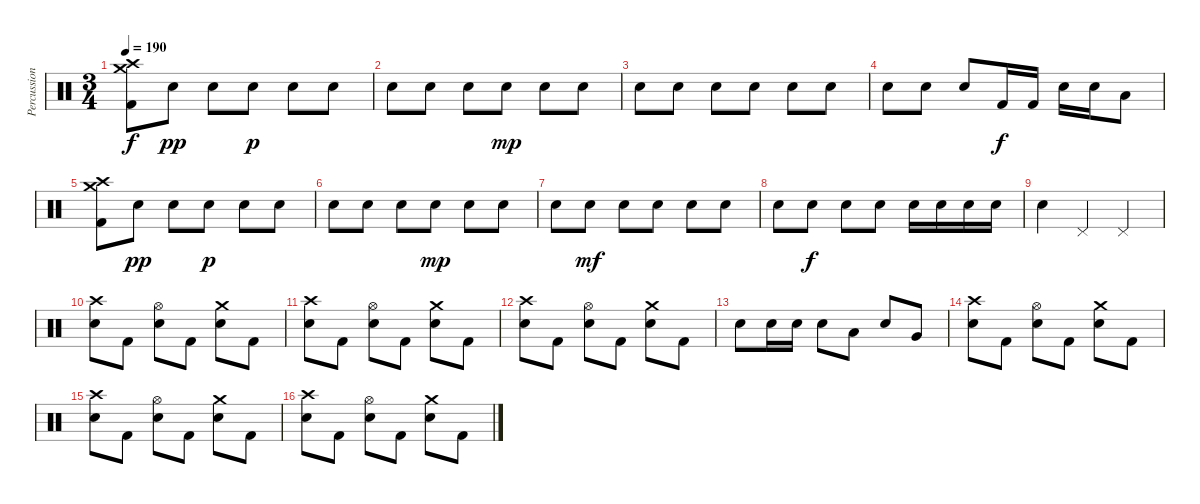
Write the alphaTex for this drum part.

\track ("Percussion" "Percussion") {instrument percussion}
\staff {score}
\articulation defaults
\ts (3 4)
\tempo 190
\clef neutral
\ks c
("Crash medium (hit)" "Crash high (hit)" "Kick (hit) 2").8{dy f} "Electric Snare (hit)".8{dy pp} "Electric Snare (hit)".8 "Electric Snare (hit)".8{dy p} "Electric Snare (hit)".8 "Electric Snare (hit)".8 |
"Electric Snare (hit)".8 "Electric Snare (hit)".8 "Electric Snare (hit)".8 "Electric Snare (hit)".8{dy mp} "Electric Snare (hit)".8 "Electric Snare (hit)".8 |
"Electric Snare (hit)".8 "Electric Snare (hit)".8 "Electric Snare (hit)".8 "Electric Snare (hit)".8 "Electric Snare (hit)".8 "Electric Snare (hit)".8 |
"Electric Snare (hit)".8 "Electric Snare (hit)".8 "Electric Snare (hit)".8 "Kick (hit) 2".16{dy f} "Kick (hit) 2".16 "Electric Snare (hit)".16 "Electric Snare (hit)".16 "Low Floor Tom (hit)".8 |
("Crash medium (hit)" "Crash high (hit)" "Kick (hit) 2").8 "Electric Snare (hit)".8{dy pp} "Electric Snare (hit)".8 "Electric Snare (hit)".8{dy p} "Electric Snare (hit)".8 "Electric Snare (hit)".8 |
"Electric Snare (hit)".8 "Electric Snare (hit)".8 "Electric Snare (hit)".8 "Electric Snare (hit)".8{dy mp} "Electric Snare (hit)".8 "Electric Snare (hit)".8 |
"Electric Snare (hit)".8 "Electric Snare (hit)".8{dy mf} "Electric Snare (hit)".8 "Electric Snare (hit)".8 "Electric Snare (hit)".8 "Electric Snare (hit)".8 |
"Electric Snare (hit)".8 "Electric Snare (hit)".8{dy f} "Electric Snare (hit)".8 "Electric Snare (hit)".8 "Electric Snare (hit)".16 "Electric Snare (hit)".16 "Electric Snare (hit)".16 "Electric Snare (hit)".16 |
"Electric Snare (hit)".4 "Pedal Hi-Hat (hit)".4 "Pedal Hi-Hat (hit)".4 |
("Crash high (hit)" "Electric Snare (hit)").8 "Kick (hit) 2".8 ("Hi-Hat (open)" "Electric Snare (hit)").8 "Kick (hit) 2".8 ("Crash medium (hit)" "Electric Snare (hit)").8 "Kick (hit) 2".8 |
("Crash high (hit)" "Electric Snare (hit)").8 "Kick (hit) 2".8 ("Hi-Hat (open)" "Electric Snare (hit)").8 "Kick (hit) 2".8 ("Crash medium (hit)" "Electric Snare (hit)").8 "Kick (hit) 2".8 |
("Crash high (hit)" "Electric Snare (hit)").8 "Kick (hit) 2".8 ("Hi-Hat (open)" "Electric Snare (hit)").8 "Kick (hit) 2".8 ("Crash medium (hit)" "Electric Snare (hit)").8 "Kick (hit) 2".8 |
"Electric Snare (hit)".8 "Electric Snare (hit)".16 "Electric Snare (hit)".16 "Electric Snare (hit)".8 "Low Tom (hit)".8 "Electric Snare (hit)".8 "Very Low Tom (hit)".8 |
("Crash high (hit)" "Electric Snare (hit)").8 "Kick (hit) 2".8 ("Hi-Hat (open)" "Electric Snare (hit)").8 "Kick (hit) 2".8 ("Crash medium (hit)" "Electric Snare (hit)").8 "Kick (hit) 2".8 |
("Crash high (hit)" "Electric Snare (hit)").8 "Kick (hit) 2".8 ("Hi-Hat (open)" "Electric Snare (hit)").8 "Kick (hit) 2".8 ("Crash medium (hit)" "Electric Snare (hit)").8 "Kick (hit) 2".8 |
("Crash high (hit)" "Electric Snare (hit)").8 "Kick (hit) 2".8 ("Hi-Hat (open)" "Electric Snare (hit)").8 "Kick (hit) 2".8 ("Crash medium (hit)" "Electric Snare (hit)").8 "Kick (hit) 2".8
